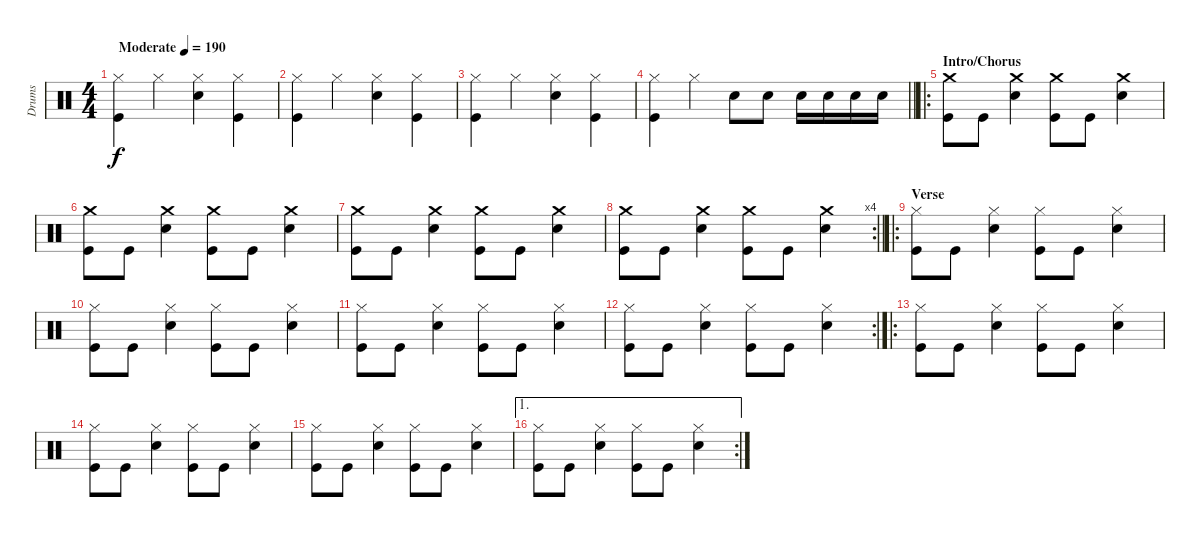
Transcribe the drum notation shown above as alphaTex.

\track ("Drums" "Drums") {instrument percussion}
\staff {score}
\articulation defaults
\ts (4 4)
\tempo (190 "Moderate")
\clef neutral
\ks c
("Hi-Hat (closed)" "Kick (hit)").4{dy f} "Hi-Hat (closed)".4 ("Hi-Hat (closed)" "Snare (hit) 2").4 ("Hi-Hat (closed)" "Kick (hit)").4 |
("Hi-Hat (closed)" "Kick (hit)").4 "Hi-Hat (closed)".4 ("Hi-Hat (closed)" "Snare (hit) 2").4 ("Hi-Hat (closed)" "Kick (hit)").4 |
("Hi-Hat (closed)" "Kick (hit)").4 "Hi-Hat (closed)".4 ("Hi-Hat (closed)" "Snare (hit) 2").4 ("Hi-Hat (closed)" "Kick (hit)").4 |
\barLineRight lightlight
("Hi-Hat (closed)" "Kick (hit)").4 "Hi-Hat (closed)".4 "Snare (hit) 2".8 "Snare (hit) 2".8 "Snare (hit) 2".16 "Snare (hit) 2".16 "Snare (hit) 2".16 "Snare (hit) 2".16 |
\ro
\section ("" "Intro/Chorus")
("Crash medium (hit)" "Kick (hit)").8 "Kick (hit)".8 ("Crash medium (hit)" "Snare (hit) 2").4 ("Crash medium (hit)" "Kick (hit)").8 "Kick (hit)".8 ("Crash medium (hit)" "Snare (hit) 2").4 |
("Crash medium (hit)" "Kick (hit)").8 "Kick (hit)".8 ("Crash medium (hit)" "Snare (hit) 2").4 ("Crash medium (hit)" "Kick (hit)").8 "Kick (hit)".8 ("Crash medium (hit)" "Snare (hit) 2").4 |
("Crash medium (hit)" "Kick (hit)").8 "Kick (hit)".8 ("Crash medium (hit)" "Snare (hit) 2").4 ("Crash medium (hit)" "Kick (hit)").8 "Kick (hit)".8 ("Crash medium (hit)" "Snare (hit) 2").4 |
\rc 4
\barLineRight lightlight
("Crash medium (hit)" "Kick (hit)").8 "Kick (hit)".8 ("Crash medium (hit)" "Snare (hit) 2").4 ("Crash medium (hit)" "Kick (hit)").8 "Kick (hit)".8 ("Crash medium (hit)" "Snare (hit) 2").4 |
\ro
\section ("" "Verse")
("Hi-Hat (closed)" "Kick (hit)").8 "Kick (hit)".8 ("Hi-Hat (closed)" "Snare (hit) 2").4 ("Hi-Hat (closed)" "Kick (hit)").8 "Kick (hit)".8 ("Hi-Hat (closed)" "Snare (hit) 2").4 |
("Hi-Hat (closed)" "Kick (hit)").8 "Kick (hit)".8 ("Hi-Hat (closed)" "Snare (hit) 2").4 ("Hi-Hat (closed)" "Kick (hit)").8 "Kick (hit)".8 ("Hi-Hat (closed)" "Snare (hit) 2").4 |
("Hi-Hat (closed)" "Kick (hit)").8 "Kick (hit)".8 ("Hi-Hat (closed)" "Snare (hit) 2").4 ("Hi-Hat (closed)" "Kick (hit)").8 "Kick (hit)".8 ("Hi-Hat (closed)" "Snare (hit) 2").4 |
\rc 2
("Hi-Hat (closed)" "Kick (hit)").8 "Kick (hit)".8 ("Hi-Hat (closed)" "Snare (hit) 2").4 ("Hi-Hat (closed)" "Kick (hit)").8 "Kick (hit)".8 ("Hi-Hat (closed)" "Snare (hit) 2").4 |
\ro
("Hi-Hat (closed)" "Kick (hit)").8 "Kick (hit)".8 ("Hi-Hat (closed)" "Snare (hit) 2").4 ("Hi-Hat (closed)" "Kick (hit)").8 "Kick (hit)".8 ("Hi-Hat (closed)" "Snare (hit) 2").4 |
("Hi-Hat (closed)" "Kick (hit)").8 "Kick (hit)".8 ("Hi-Hat (closed)" "Snare (hit) 2").4 ("Hi-Hat (closed)" "Kick (hit)").8 "Kick (hit)".8 ("Hi-Hat (closed)" "Snare (hit) 2").4 |
("Hi-Hat (closed)" "Kick (hit)").8 "Kick (hit)".8 ("Hi-Hat (closed)" "Snare (hit) 2").4 ("Hi-Hat (closed)" "Kick (hit)").8 "Kick (hit)".8 ("Hi-Hat (closed)" "Snare (hit) 2").4 |
\ae 1
\rc 2
("Hi-Hat (closed)" "Kick (hit)").8 "Kick (hit)".8 ("Hi-Hat (closed)" "Snare (hit) 2").4 ("Hi-Hat (closed)" "Kick (hit)").8 "Kick (hit)".8 ("Hi-Hat (closed)" "Snare (hit) 2").4
